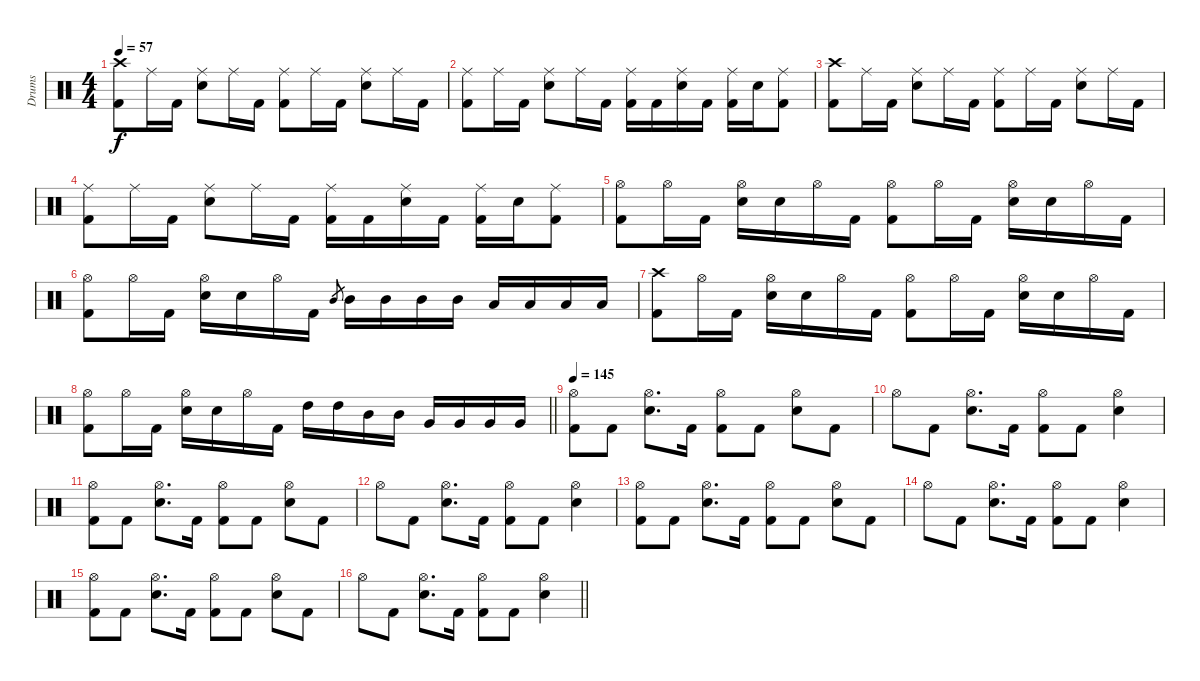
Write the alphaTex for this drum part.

\track ("Drums" "Drums") {instrument percussion}
\staff {score}
\articulation defaults
\ts (4 4)
\tempo 57
\clef neutral
\ks c
("Crash high (hit)" "Kick (hit) 2").8{dy f} "Ride (middle)".16 "Kick (hit) 2".16 ("Ride (middle)" "Electric Snare (hit)").8 "Ride (middle)".16 "Kick (hit) 2".16 ("Ride (middle)" "Kick (hit) 2").8 "Ride (middle)".16 "Kick (hit) 2".16 ("Ride (middle)" "Electric Snare (hit)").8 "Ride (middle)".16 "Kick (hit) 2".16 |
("Ride (middle)" "Kick (hit) 2").8 "Ride (middle)".16 "Kick (hit) 2".16 ("Ride (middle)" "Electric Snare (hit)").8 "Ride (middle)".16 "Kick (hit) 2".16 ("Ride (middle)" "Kick (hit) 2").16 "Kick (hit) 2".16 ("Ride (middle)" "Electric Snare (hit)").16 "Kick (hit) 2".16 ("Ride (middle)" "Kick (hit) 2").16 "Electric Snare (hit)".16 ("Ride (middle)" "Kick (hit) 2").8 |
("Crash high (hit)" "Kick (hit) 2").8 "Ride (middle)".16 "Kick (hit) 2".16 ("Ride (middle)" "Electric Snare (hit)").8 "Ride (middle)".16 "Kick (hit) 2".16 ("Ride (middle)" "Kick (hit) 2").8 "Ride (middle)".16 "Kick (hit) 2".16 ("Ride (middle)" "Electric Snare (hit)").8 "Ride (middle)".16 "Kick (hit) 2".16 |
("Ride (middle)" "Kick (hit) 2").8 "Ride (middle)".16 "Kick (hit) 2".16 ("Ride (middle)" "Electric Snare (hit)").8 "Ride (middle)".16 "Kick (hit) 2".16 ("Ride (middle)" "Kick (hit) 2").16 "Kick (hit) 2".16 ("Ride (middle)" "Electric Snare (hit)").16 "Kick (hit) 2".16 ("Ride (middle)" "Kick (hit) 2").16 "Electric Snare (hit)".16 ("Ride (middle)" "Kick (hit) 2").8 |
("Hi-Hat (open)" "Kick (hit) 2").8 "Hi-Hat (open)".16 "Kick (hit) 2".16 ("Hi-Hat (open)" "Electric Snare (hit)").16 "Electric Snare (hit)".16 "Hi-Hat (open)".16 "Kick (hit) 2".16 ("Hi-Hat (open)" "Kick (hit) 2").8 "Hi-Hat (open)".16 "Kick (hit) 2".16 ("Hi-Hat (open)" "Electric Snare (hit)").16 "Electric Snare (hit)".16 "Hi-Hat (open)".16 "Kick (hit) 2".16 |
("Hi-Hat (open)" "Kick (hit) 2").8 "Hi-Hat (open)".16 "Kick (hit) 2".16 ("Hi-Hat (open)" "Electric Snare (hit)").16 "Electric Snare (hit)".16 "Hi-Hat (open)".16 "Kick (hit) 2".16 "Mid Tom (hit)".8{gr} "Mid Tom (hit)".16 "Mid Tom (hit)".16 "Mid Tom (hit)".16 "Mid Tom (hit)".16 "Low Tom (hit)".16 "Low Tom (hit)".16 "Low Tom (hit)".16 "Low Tom (hit)".16 |
("Crash high (hit)" "Kick (hit) 2").8 "Hi-Hat (open)".16 "Kick (hit) 2".16 ("Hi-Hat (open)" "Electric Snare (hit)").16 "Electric Snare (hit)".16 "Hi-Hat (open)".16 "Kick (hit) 2".16 ("Hi-Hat (open)" "Kick (hit) 2").8 "Hi-Hat (open)".16 "Kick (hit) 2".16 ("Hi-Hat (open)" "Electric Snare (hit)").16 "Electric Snare (hit)".16 "Hi-Hat (open)".16 "Kick (hit) 2".16 |
\barLineRight lightlight
("Hi-Hat (open)" "Kick (hit) 2").8 "Hi-Hat (open)".16 "Kick (hit) 2".16 ("Hi-Hat (open)" "Electric Snare (hit)").16 "Electric Snare (hit)".16 "Hi-Hat (open)".16 "Kick (hit) 2".16 "High Tom (hit)".16 "High Tom (hit)".16 "Mid Tom (hit)".16 "Mid Tom (hit)".16 "Very Low Tom (hit)".16 "Very Low Tom (hit)".16 "Very Low Tom (hit)".16 "Very Low Tom (hit)".16 |
\tempo 145
("Hi-Hat (open)" "Kick (hit) 2").8 "Kick (hit) 2".8 ("Hi-Hat (open)" "Electric Snare (hit)").8{d} "Kick (hit) 2".16 ("Hi-Hat (open)" "Kick (hit) 2").8 "Kick (hit) 2".8 ("Hi-Hat (open)" "Electric Snare (hit)").8 "Kick (hit) 2".8 |
"Hi-Hat (open)".8 "Kick (hit) 2".8 ("Hi-Hat (open)" "Electric Snare (hit)").8{d} "Kick (hit) 2".16 ("Hi-Hat (open)" "Kick (hit) 2").8 "Kick (hit) 2".8 ("Hi-Hat (open)" "Electric Snare (hit)").4 |
("Hi-Hat (open)" "Kick (hit) 2").8 "Kick (hit) 2".8 ("Hi-Hat (open)" "Electric Snare (hit)").8{d} "Kick (hit) 2".16 ("Hi-Hat (open)" "Kick (hit) 2").8 "Kick (hit) 2".8 ("Hi-Hat (open)" "Electric Snare (hit)").8 "Kick (hit) 2".8 |
"Hi-Hat (open)".8 "Kick (hit) 2".8 ("Hi-Hat (open)" "Electric Snare (hit)").8{d} "Kick (hit) 2".16 ("Hi-Hat (open)" "Kick (hit) 2").8 "Kick (hit) 2".8 ("Hi-Hat (open)" "Electric Snare (hit)").4 |
("Hi-Hat (open)" "Kick (hit) 2").8 "Kick (hit) 2".8 ("Hi-Hat (open)" "Electric Snare (hit)").8{d} "Kick (hit) 2".16 ("Hi-Hat (open)" "Kick (hit) 2").8 "Kick (hit) 2".8 ("Hi-Hat (open)" "Electric Snare (hit)").8 "Kick (hit) 2".8 |
"Hi-Hat (open)".8 "Kick (hit) 2".8 ("Hi-Hat (open)" "Electric Snare (hit)").8{d} "Kick (hit) 2".16 ("Hi-Hat (open)" "Kick (hit) 2").8 "Kick (hit) 2".8 ("Hi-Hat (open)" "Electric Snare (hit)").4 |
("Hi-Hat (open)" "Kick (hit) 2").8 "Kick (hit) 2".8 ("Hi-Hat (open)" "Electric Snare (hit)").8{d} "Kick (hit) 2".16 ("Hi-Hat (open)" "Kick (hit) 2").8 "Kick (hit) 2".8 ("Hi-Hat (open)" "Electric Snare (hit)").8 "Kick (hit) 2".8 |
\barLineRight lightlight "Hi-Hat (open)".8 "Kick (hit) 2".8
("Hi-Hat (open)" "Electric Snare (hit)").8{d} "Kick (hit) 2".16 ("Hi-Hat (open)" "Kick (hit) 2").8 "Kick (hit) 2".8 ("Hi-Hat (open)" "Electric Snare (hit)").4
